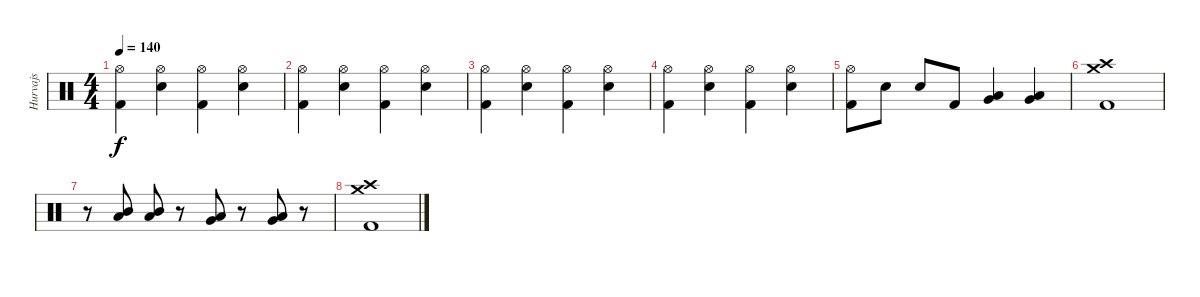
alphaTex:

\track ("Hurvajs" "Hurvajs") {instrument percussion}
\staff {score}
\articulation defaults
\ts (4 4)
\tempo 140
\clef neutral
\ks c
("Hi-Hat (open)" "Kick (hit) 2").4{dy f} ("Hi-Hat (open)" "Snare (hit) 2").4 ("Hi-Hat (open)" "Kick (hit) 2").4 ("Hi-Hat (open)" "Snare (hit) 2").4 |
("Hi-Hat (open)" "Kick (hit) 2").4 ("Hi-Hat (open)" "Snare (hit) 2").4 ("Hi-Hat (open)" "Kick (hit) 2").4 ("Hi-Hat (open)" "Snare (hit) 2").4 |
("Hi-Hat (open)" "Kick (hit) 2").4 ("Hi-Hat (open)" "Snare (hit) 2").4 ("Hi-Hat (open)" "Kick (hit) 2").4 ("Hi-Hat (open)" "Snare (hit) 2").4 |
("Hi-Hat (open)" "Kick (hit) 2").4 ("Hi-Hat (open)" "Snare (hit) 2").4 ("Hi-Hat (open)" "Kick (hit) 2").4 ("Hi-Hat (open)" "Snare (hit) 2").4 |
("Hi-Hat (open)" "Kick (hit) 2").8 "Snare (hit) 2".8 "Snare (hit) 2".8 "Kick (hit) 2".8 ("Very Low Tom (hit)" "Low Tom (hit)").4 ("Very Low Tom (hit)" "Low Tom (hit)").4 |
("Crash medium (hit)" "Crash high (hit)" "Kick (hit) 2").1 |
r.8 ("Mid Tom (hit)" "Low Tom (hit)").8 ("Mid Tom (hit)" "Low Tom (hit)").8 r.8 ("Low Tom (hit)" "Very Low Tom (hit)").8 r.8 ("Low Floor Tom (hit)" "Very Low Tom (hit)").8 r.8 |
("Crash medium (hit)" "Crash high (hit)" "Kick (hit) 2").1
